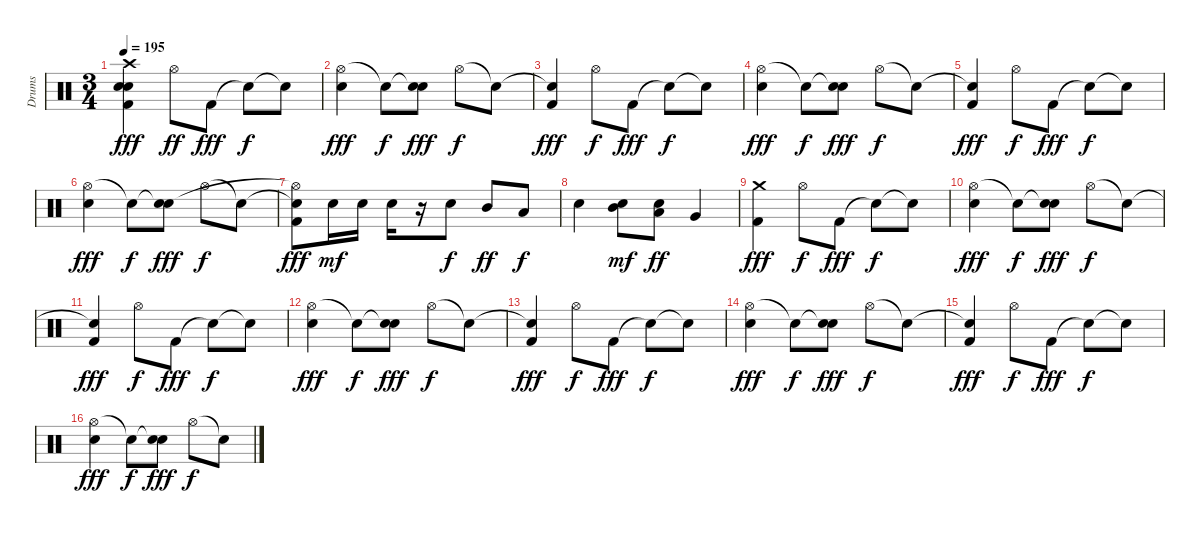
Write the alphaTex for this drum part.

\track ("Drums" "Drums") {instrument percussion}
\staff {score}
\articulation defaults
\ts (3 4)
\tempo 195
\clef neutral
\ks c
("Crash high (hit)" "Snare (hit)"{t} "Snare (hit)" "Kick (hit) 2").4{dy fff} "Hi-Hat (open)".8{dy ff} "Kick (hit) 2".8{dy fff} "Snare (hit)"{t}.8{dy f} "Snare (hit)"{t}.8 |
("Hi-Hat (open)" "Electric Snare (hit)").4{dy fff} "Electric Snare (hit)"{t}.8{dy f} ("Snare (hit)"{t} "Electric Snare (hit)").8{dy fff} "Hi-Hat (open)".8{dy f} "Snare (hit)"{t}.8 |
("Snare (hit)"{t} "Kick (hit) 2").4{dy fff} "Hi-Hat (open)".8{dy f} "Kick (hit) 2".8{dy fff} "Snare (hit)"{t}.8{dy f} "Snare (hit)"{t}.8 |
("Hi-Hat (open)" "Electric Snare (hit)").4{dy fff} "Electric Snare (hit)"{t}.8{dy f} ("Snare (hit)"{t} "Electric Snare (hit)").8{dy fff} "Hi-Hat (open)".8{dy f} "Snare (hit)"{t}.8 |
("Snare (hit)"{t} "Kick (hit) 2").4{dy fff} "Hi-Hat (open)".8{dy f} "Kick (hit) 2".8{dy fff} "Snare (hit)"{t}.8{dy f} "Snare (hit)"{t}.8 |
("Hi-Hat (open)" "Electric Snare (hit)").4{dy fff} "Electric Snare (hit)"{t}.8{dy f} ("Snare (hit)"{t} "Electric Snare (hit)").8{dy fff} "Hi-Hat (open)".8{dy f} "Snare (hit)"{t}.8 |
("Snare (hit)"{t} "Hi-Hat (open)"{t} "Kick (hit) 2").8{dy fff} "Electric Snare (hit)".16{dy mf} "Electric Snare (hit)".16 "Electric Snare (hit)".16 r.16 "Electric Snare (hit)".8{dy f} "Mid Tom (hit)".8{dy ff} "Low Tom (hit)".8{dy f} |
"Electric Snare (hit)".4 ("Mid Tom (hit)" "Electric Snare (hit)").8{dy mf} ("Low Tom (hit)" "Electric Snare (hit)").8{dy ff} "Very Low Tom (hit)".4 |
("Crash medium (hit)" "Kick (hit) 2").4{dy fff} "Hi-Hat (open)".8{dy f} "Kick (hit) 2".8{dy fff} "Snare (hit)"{t}.8{dy f} "Snare (hit)"{t}.8 |
("Hi-Hat (open)" "Electric Snare (hit)").4{dy fff} "Electric Snare (hit)"{t}.8{dy f} ("Snare (hit)"{t} "Electric Snare (hit)").8{dy fff} "Hi-Hat (open)".8{dy f} "Snare (hit)"{t}.8 |
("Snare (hit)"{t} "Kick (hit) 2").4{dy fff} "Hi-Hat (open)".8{dy f} "Kick (hit) 2".8{dy fff} "Snare (hit)"{t}.8{dy f} "Snare (hit)"{t}.8 |
("Hi-Hat (open)" "Electric Snare (hit)").4{dy fff} "Electric Snare (hit)"{t}.8{dy f} ("Snare (hit)"{t} "Electric Snare (hit)").8{dy fff} "Hi-Hat (open)".8{dy f} "Snare (hit)"{t}.8 |
("Snare (hit)"{t} "Kick (hit) 2").4{dy fff} "Hi-Hat (open)".8{dy f} "Kick (hit) 2".8{dy fff} "Snare (hit)"{t}.8{dy f} "Snare (hit)"{t}.8 |
("Hi-Hat (open)" "Electric Snare (hit)").4{dy fff} "Electric Snare (hit)"{t}.8{dy f} ("Snare (hit)"{t} "Electric Snare (hit)").8{dy fff} "Hi-Hat (open)".8{dy f} "Snare (hit)"{t}.8 |
("Snare (hit)"{t} "Kick (hit) 2").4{dy fff} "Hi-Hat (open)".8{dy f} "Kick (hit) 2".8{dy fff} "Snare (hit)"{t}.8{dy f} "Snare (hit)"{t}.8 |
("Hi-Hat (open)" "Electric Snare (hit)").4{dy fff} "Electric Snare (hit)"{t}.8{dy f} ("Snare (hit)"{t} "Electric Snare (hit)").8{dy fff} "Hi-Hat (open)".8{dy f} "Snare (hit)"{t}.8
